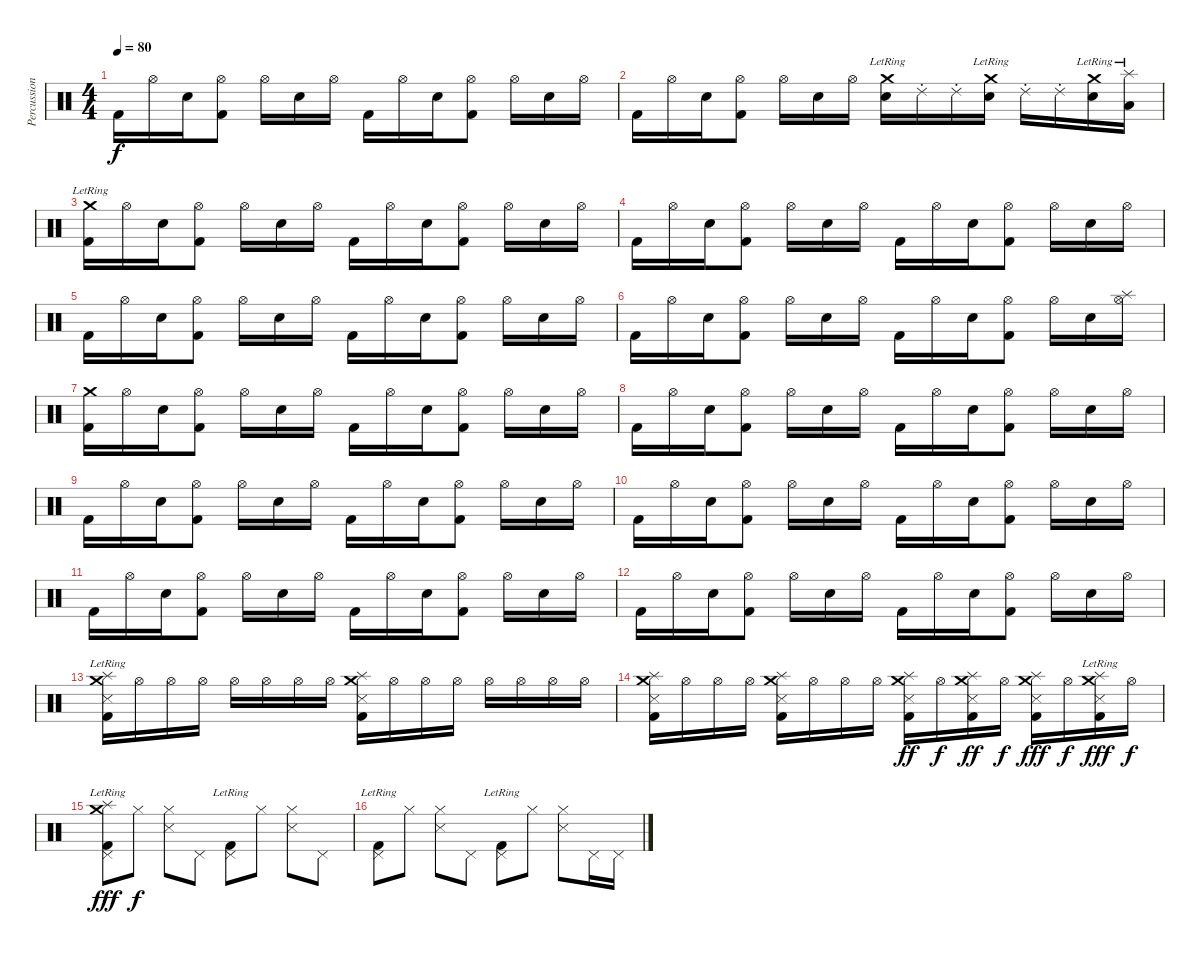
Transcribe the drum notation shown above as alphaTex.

\track ("Percussions / Batterie" "Percussion") {instrument percussion}
\staff {score}
\articulation defaults
\ts (4 4)
\tempo 80
\clef neutral
\ks c "Kick (hit) 2".16{dy f} "Hi-Hat (open)".16 "Electric Snare (hit)".16
("Hi-Hat (open)" "Kick (hit) 2").8 "Hi-Hat (open)".16 "Electric Snare (hit)".16 "Hi-Hat (open)".16 "Kick (hit) 2".16 "Hi-Hat (open)".16 "Electric Snare (hit)".16 ("Hi-Hat (open)" "Kick (hit) 2").8 "Hi-Hat (open)".16 "Electric Snare (hit)".16 "Hi-Hat (open)".16 |
"Kick (hit) 2".16 "Hi-Hat (open)".16 "Electric Snare (hit)".16 ("Hi-Hat (open)" "Kick (hit) 2").8 "Hi-Hat (open)".16 "Electric Snare (hit)".16 "Hi-Hat (open)".16 ("Crash medium (hit)"{lr} "Electric Snare (hit)").16 "Ride (choke) 2".16 "Ride (choke) 2".16 ("Crash medium (hit)"{lr} "Electric Snare (hit)").16 "Ride (choke) 2".16 "Ride (choke) 2".16 ("Crash medium (hit)"{lr} "Electric Snare (hit)").16 ("Splash (hit)"{lr} "Low Floor Tom (hit)").16 |
("Crash medium (hit)"{lr} "Kick (hit) 2").16 "Hi-Hat (open)".16 "Electric Snare (hit)".16 ("Hi-Hat (open)" "Kick (hit) 2").8 "Hi-Hat (open)".16 "Electric Snare (hit)".16 "Hi-Hat (open)".16 "Kick (hit) 2".16 "Hi-Hat (open)".16 "Electric Snare (hit)".16 ("Hi-Hat (open)" "Kick (hit) 2").8 "Hi-Hat (open)".16 "Electric Snare (hit)".16 "Hi-Hat (open)".16 |
"Kick (hit) 2".16 "Hi-Hat (open)".16 "Electric Snare (hit)".16 ("Hi-Hat (open)" "Kick (hit) 2").8 "Hi-Hat (open)".16 "Electric Snare (hit)".16 "Hi-Hat (open)".16 "Kick (hit) 2".16 "Hi-Hat (open)".16 "Electric Snare (hit)".16 ("Hi-Hat (open)" "Kick (hit) 2").8 "Hi-Hat (open)".16 "Electric Snare (hit)".16 "Hi-Hat (open)".16 |
"Kick (hit) 2".16 "Hi-Hat (open)".16 "Electric Snare (hit)".16 ("Hi-Hat (open)" "Kick (hit) 2").8 "Hi-Hat (open)".16 "Electric Snare (hit)".16 "Hi-Hat (open)".16 "Kick (hit) 2".16 "Hi-Hat (open)".16 "Electric Snare (hit)".16 ("Hi-Hat (open)" "Kick (hit) 2").8 "Hi-Hat (open)".16 "Electric Snare (hit)".16 "Hi-Hat (open)".16 |
"Kick (hit) 2".16 "Hi-Hat (open)".16 "Electric Snare (hit)".16 ("Hi-Hat (open)" "Kick (hit) 2").8 "Hi-Hat (open)".16 "Electric Snare (hit)".16 "Hi-Hat (open)".16 "Kick (hit) 2".16 "Hi-Hat (open)".16 "Electric Snare (hit)".16 ("Hi-Hat (open)" "Kick (hit) 2").8 "Hi-Hat (open)".16 "Electric Snare (hit)".16 ("Splash (hit)" "Hi-Hat (open)").16 |
("Crash medium (hit)" "Kick (hit) 2").16 "Hi-Hat (open)".16 "Electric Snare (hit)".16 ("Hi-Hat (open)" "Kick (hit) 2").8 "Hi-Hat (open)".16 "Electric Snare (hit)".16 "Hi-Hat (open)".16 "Kick (hit) 2".16 "Hi-Hat (open)".16 "Electric Snare (hit)".16 ("Hi-Hat (open)" "Kick (hit) 2").8 "Hi-Hat (open)".16 "Electric Snare (hit)".16 "Hi-Hat (open)".16 |
"Kick (hit) 2".16 "Hi-Hat (open)".16 "Electric Snare (hit)".16 ("Hi-Hat (open)" "Kick (hit) 2").8 "Hi-Hat (open)".16 "Electric Snare (hit)".16 "Hi-Hat (open)".16 "Kick (hit) 2".16 "Hi-Hat (open)".16 "Electric Snare (hit)".16 ("Hi-Hat (open)" "Kick (hit) 2").8 "Hi-Hat (open)".16 "Electric Snare (hit)".16 "Hi-Hat (open)".16 |
"Kick (hit) 2".16 "Hi-Hat (open)".16 "Electric Snare (hit)".16 ("Hi-Hat (open)" "Kick (hit) 2").8 "Hi-Hat (open)".16 "Electric Snare (hit)".16 "Hi-Hat (open)".16 "Kick (hit) 2".16 "Hi-Hat (open)".16 "Electric Snare (hit)".16 ("Hi-Hat (open)" "Kick (hit) 2").8 "Hi-Hat (open)".16 "Electric Snare (hit)".16 "Hi-Hat (open)".16 |
"Kick (hit) 2".16 "Hi-Hat (open)".16 "Electric Snare (hit)".16 ("Hi-Hat (open)" "Kick (hit) 2").8 "Hi-Hat (open)".16 "Electric Snare (hit)".16 "Hi-Hat (open)".16 "Kick (hit) 2".16 "Hi-Hat (open)".16 "Electric Snare (hit)".16 ("Hi-Hat (open)" "Kick (hit) 2").8 "Hi-Hat (open)".16 "Electric Snare (hit)".16 "Hi-Hat (open)".16 |
"Kick (hit) 2".16 "Hi-Hat (open)".16 "Electric Snare (hit)".16 ("Hi-Hat (open)" "Kick (hit) 2").8 "Hi-Hat (open)".16 "Electric Snare (hit)".16 "Hi-Hat (open)".16 "Kick (hit) 2".16 "Hi-Hat (open)".16 "Electric Snare (hit)".16 ("Hi-Hat (open)" "Kick (hit) 2").8 "Hi-Hat (open)".16 "Electric Snare (hit)".16 "Hi-Hat (open)".16 |
"Kick (hit) 2".16 "Hi-Hat (open)".16 "Electric Snare (hit)".16 ("Hi-Hat (open)" "Kick (hit) 2").8 "Hi-Hat (open)".16 "Electric Snare (hit)".16 "Hi-Hat (open)".16 "Kick (hit) 2".16 "Hi-Hat (open)".16 "Electric Snare (hit)".16 ("Hi-Hat (open)" "Kick (hit) 2").8 "Hi-Hat (open)".16 "Electric Snare (hit)".16 "Hi-Hat (open)".16 |
("Crash medium (hit)"{lr} "Splash (hit)"{lr} "Kick (hit) 2" "Metronome (hit)").16 "Hi-Hat (open)".16 "Hi-Hat (open)".16 "Hi-Hat (open)".16 "Hi-Hat (open)".16 "Hi-Hat (open)".16 "Hi-Hat (open)".16 "Hi-Hat (open)".16 ("Crash medium (hit)" "Splash (hit)" "Kick (hit) 2" "Metronome (hit)").16 "Hi-Hat (open)".16 "Hi-Hat (open)".16 "Hi-Hat (open)".16 "Hi-Hat (open)".16 "Hi-Hat (open)".16 "Hi-Hat (open)".16 "Hi-Hat (open)".16 |
("Crash medium (hit)" "Splash (hit)" "Kick (hit) 2" "Metronome (hit)").16 "Hi-Hat (open)".16 "Hi-Hat (open)".16 "Hi-Hat (open)".16 ("Crash medium (hit)" "Splash (hit)" "Kick (hit) 2" "Metronome (hit)").16 "Hi-Hat (open)".16 "Hi-Hat (open)".16 "Hi-Hat (open)".16 ("Crash medium (hit)" "Splash (hit)" "Kick (hit) 2" "Metronome (hit)").16{dy ff} "Hi-Hat (open)".16{dy f} ("Crash medium (hit)" "Splash (hit)" "Kick (hit) 2" "Metronome (hit)").16{dy ff} "Hi-Hat (open)".16{dy f} ("Crash medium (hit)" "Splash (hit)" "Kick (hit) 2" "Metronome (hit)").16{dy fff} "Hi-Hat (open)".16{dy f} ("Crash medium (hit)"{lr} "Splash (hit)" "Kick (hit) 2" "Metronome (hit)").16{dy fff} "Hi-Hat (open)".16{dy f} |
("Crash medium (hit)" "Splash (hit)" "Pedal Hi-Hat (hit)" "Kick (hit) 2"{lr}).8{dy fff} "Hi-Hat (closed)".8{dy f} ("Hi-Hat (closed)" "Snare (side stick) 3").8 "Pedal Hi-Hat (hit)".8 ("Pedal Hi-Hat (hit)" "Kick (hit) 2"{lr}).8 "Hi-Hat (closed)".8 ("Hi-Hat (closed)" "Snare (side stick) 3").8 "Pedal Hi-Hat (hit)".8 |
("Pedal Hi-Hat (hit)" "Kick (hit) 2"{lr}).8 "Hi-Hat (closed)".8 ("Hi-Hat (closed)" "Snare (side stick) 3").8 "Pedal Hi-Hat (hit)".8 ("Pedal Hi-Hat (hit)" "Kick (hit) 2"{lr}).8 "Hi-Hat (closed)".8 ("Hi-Hat (closed)" "Snare (side stick) 3").8 "Pedal Hi-Hat (hit)".16 "Pedal Hi-Hat (hit)".16
